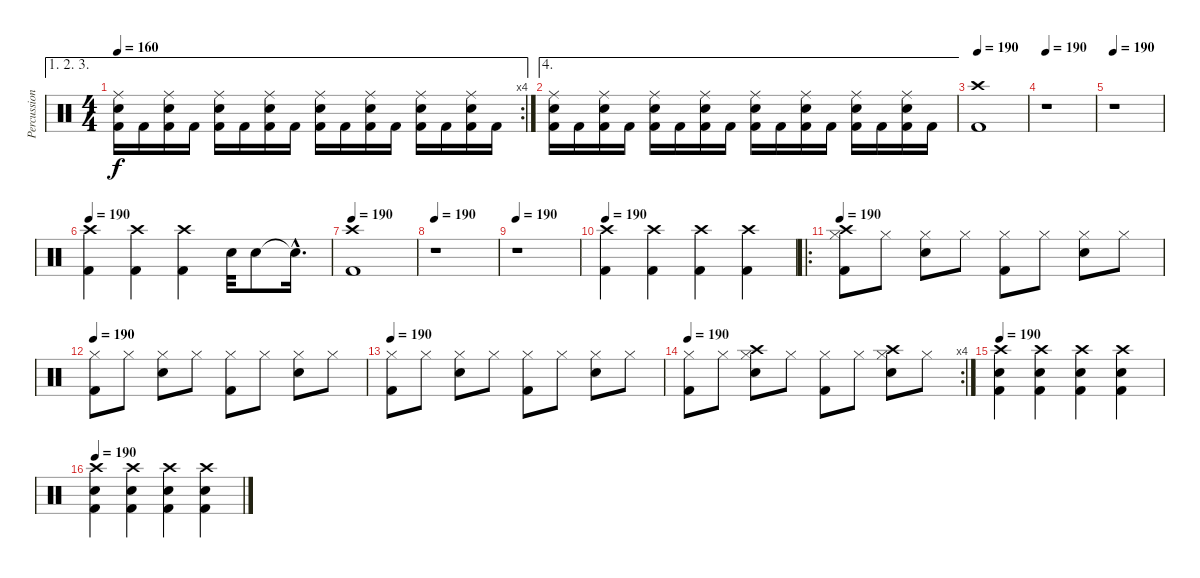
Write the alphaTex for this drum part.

\track ("Percussion" "Percussion") {instrument percussion}
\staff {score}
\articulation defaults
\ae (1 2 3)
\rc 4
\ts (4 4)
\tempo 160
\clef neutral
\ks c
("Kick (hit) 2" "Snare (hit) 2" "Ride (middle)").16{dy f} "Kick (hit) 2".16 ("Kick (hit) 2" "Snare (hit) 2" "Ride (middle)").16 "Kick (hit) 2".16 ("Kick (hit) 2" "Snare (hit) 2" "Ride (middle)").16 "Kick (hit) 2".16 ("Kick (hit) 2" "Snare (hit) 2" "Ride (middle)").16 "Kick (hit) 2".16 ("Kick (hit) 2" "Snare (hit) 2" "Ride (middle)").16 "Kick (hit) 2".16 ("Kick (hit) 2" "Snare (hit) 2" "Ride (middle)").16 "Kick (hit) 2".16 ("Kick (hit) 2" "Snare (hit) 2" "Ride (middle)").16 "Kick (hit) 2".16 ("Kick (hit) 2" "Snare (hit) 2" "Ride (middle)").16 "Kick (hit) 2".16 |
\ae 4
("Kick (hit) 2" "Snare (hit) 2" "Ride (middle)").16 "Kick (hit) 2".16 ("Kick (hit) 2" "Snare (hit) 2" "Ride (middle)").16 "Kick (hit) 2".16 ("Kick (hit) 2" "Snare (hit) 2" "Ride (middle)").16 "Kick (hit) 2".16 ("Kick (hit) 2" "Snare (hit) 2" "Ride (middle)").16 "Kick (hit) 2".16 ("Kick (hit) 2" "Snare (hit) 2" "Ride (middle)").16 "Kick (hit) 2".16 ("Kick (hit) 2" "Snare (hit) 2" "Ride (middle)").16 "Kick (hit) 2".16 ("Kick (hit) 2" "Snare (hit) 2" "Ride (middle)").16 "Kick (hit) 2".16 ("Kick (hit) 2" "Snare (hit) 2" "Ride (middle)").16 "Kick (hit) 2".16 |
\tempo 190
("Kick (hit) 2" "Crash high (hit)").1 |
\tempo 190
r.1 |
\tempo 190
r.1 |
\tempo 190
("Kick (hit) 2" "Crash high (hit)").4 ("Kick (hit) 2" "Crash high (hit)").4 ("Kick (hit) 2" "Crash high (hit)").4 "Snare (hit) 2".32 "Snare (hit) 2".8 "Snare (hit)"{hac t}.16{d} |
\tempo 190
("Kick (hit) 2" "Crash high (hit)").1 |
\tempo 190
r.1 |
\tempo 190
r.1 |
\tempo 190
("Kick (hit) 2" "Crash high (hit)").4 ("Kick (hit) 2" "Crash high (hit)").4 ("Kick (hit) 2" "Crash high (hit)").4 ("Kick (hit) 2" "Crash high (hit)").4 |
\ro
\tempo 190
("Hi-Hat (closed)" "Kick (hit) 2" "Crash high (hit)").8 "Hi-Hat (closed)".8 ("Hi-Hat (closed)" "Snare (hit) 2").8 "Hi-Hat (closed)".8 ("Hi-Hat (closed)" "Kick (hit) 2").8 "Hi-Hat (closed)".8 ("Hi-Hat (closed)" "Snare (hit) 2").8 "Hi-Hat (closed)".8 |
\tempo 190
("Hi-Hat (closed)" "Kick (hit) 2").8 "Hi-Hat (closed)".8 ("Hi-Hat (closed)" "Snare (hit) 2").8 "Hi-Hat (closed)".8 ("Hi-Hat (closed)" "Kick (hit) 2").8 "Hi-Hat (closed)".8 ("Hi-Hat (closed)" "Snare (hit) 2").8 "Hi-Hat (closed)".8 |
\tempo 190
("Hi-Hat (closed)" "Kick (hit) 2").8 "Hi-Hat (closed)".8 ("Hi-Hat (closed)" "Snare (hit) 2").8 "Hi-Hat (closed)".8 ("Hi-Hat (closed)" "Kick (hit) 2").8 "Hi-Hat (closed)".8 ("Hi-Hat (closed)" "Snare (hit) 2").8 "Hi-Hat (closed)".8 |
\rc 4
\tempo 190
("Hi-Hat (closed)" "Kick (hit) 2").8 "Hi-Hat (closed)".8 ("Hi-Hat (closed)" "Snare (hit) 2" "Crash high (hit)").8 "Hi-Hat (closed)".8 ("Hi-Hat (closed)" "Kick (hit) 2").8 "Hi-Hat (closed)".8 ("Hi-Hat (closed)" "Snare (hit) 2" "Crash high (hit)").8 "Hi-Hat (closed)".8 |
\tempo 190
("Kick (hit) 2" "Snare (hit) 2" "Crash high (hit)").4 ("Kick (hit) 2" "Snare (hit) 2" "Crash high (hit)").4 ("Kick (hit) 2" "Snare (hit) 2" "Crash high (hit)").4 ("Kick (hit) 2" "Snare (hit) 2" "Crash high (hit)").4 |
\tempo 190
("Kick (hit) 2" "Snare (hit) 2" "Crash high (hit)").4 ("Kick (hit) 2" "Snare (hit) 2" "Crash high (hit)").4 ("Kick (hit) 2" "Snare (hit) 2" "Crash high (hit)").4 ("Kick (hit) 2" "Snare (hit) 2" "Crash high (hit)").4
